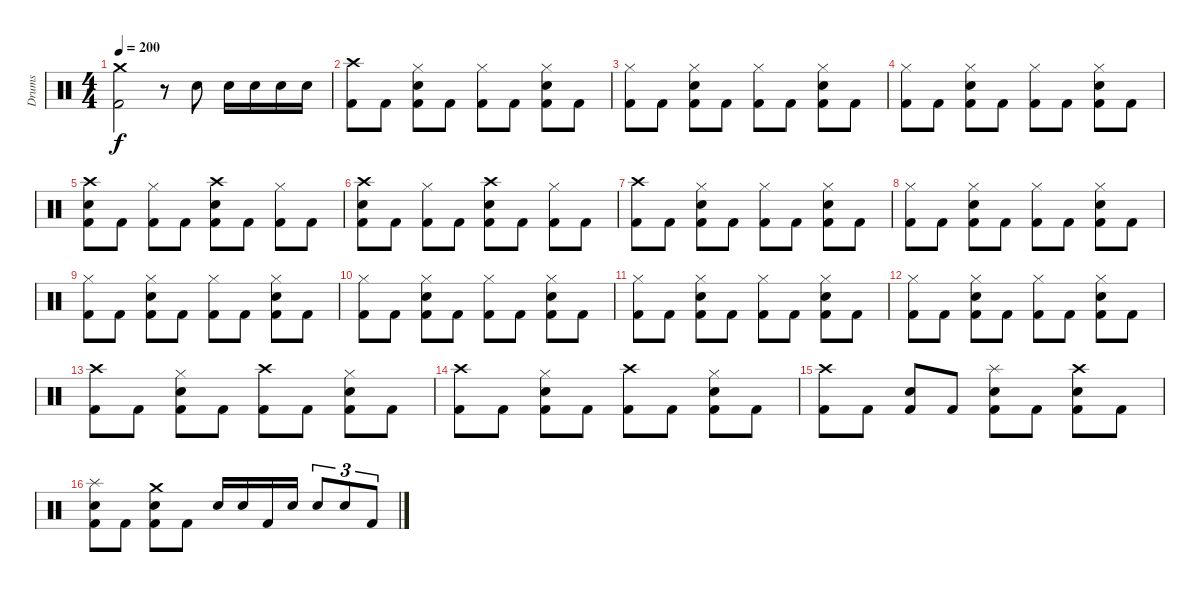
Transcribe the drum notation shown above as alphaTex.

\track ("Drums" "Drums") {instrument percussion}
\staff {score}
\articulation defaults
\ts (4 4)
\tempo 200
\clef neutral
\ks c
("Crash medium (hit)" "Kick (hit) 2").2{dy f} r.8 "Snare (hit) 2".8 "Snare (hit) 2".16 "Snare (hit) 2".16 "Snare (hit) 2".16 "Snare (hit) 2".16 |
("Crash high (hit)" "Kick (hit) 2").8 "Kick (hit) 2".8 ("Hi-Hat (closed)" "Snare (hit) 2" "Kick (hit) 2").8 "Kick (hit) 2".8 ("Hi-Hat (closed)" "Kick (hit) 2").8 "Kick (hit) 2".8 ("Hi-Hat (closed)" "Snare (hit) 2" "Kick (hit) 2").8 "Kick (hit) 2".8 |
("Hi-Hat (closed)" "Kick (hit) 2").8 "Kick (hit) 2".8 ("Hi-Hat (closed)" "Snare (hit) 2" "Kick (hit) 2").8 "Kick (hit) 2".8 ("Hi-Hat (closed)" "Kick (hit) 2").8 "Kick (hit) 2".8 ("Hi-Hat (closed)" "Snare (hit) 2" "Kick (hit) 2").8 "Kick (hit) 2".8 |
("Hi-Hat (closed)" "Kick (hit) 2").8 "Kick (hit) 2".8 ("Hi-Hat (closed)" "Snare (hit) 2" "Kick (hit) 2").8 "Kick (hit) 2".8 ("Hi-Hat (closed)" "Kick (hit) 2").8 "Kick (hit) 2".8 ("Hi-Hat (closed)" "Snare (hit) 2" "Kick (hit) 2").8 "Kick (hit) 2".8 |
("Crash high (hit)" "Snare (hit) 2" "Kick (hit) 2").8 "Kick (hit) 2".8 ("Hi-Hat (closed)" "Kick (hit) 2").8 "Kick (hit) 2".8 ("Crash high (hit)" "Snare (hit) 2" "Kick (hit) 2").8 "Kick (hit) 2".8 ("Hi-Hat (closed)" "Kick (hit) 2").8 "Kick (hit) 2".8 |
("Crash high (hit)" "Snare (hit) 2" "Kick (hit) 2").8 "Kick (hit) 2".8 ("Hi-Hat (closed)" "Kick (hit) 2").8 "Kick (hit) 2".8 ("Crash high (hit)" "Snare (hit) 2" "Kick (hit) 2").8 "Kick (hit) 2".8 ("Hi-Hat (closed)" "Kick (hit) 2").8 "Kick (hit) 2".8 |
("Crash high (hit)" "Kick (hit) 2").8 "Kick (hit) 2".8 ("Hi-Hat (closed)" "Snare (hit) 2" "Kick (hit) 2").8 "Kick (hit) 2".8 ("Hi-Hat (closed)" "Kick (hit) 2").8 "Kick (hit) 2".8 ("Hi-Hat (closed)" "Snare (hit) 2" "Kick (hit) 2").8 "Kick (hit) 2".8 |
("Hi-Hat (closed)" "Kick (hit) 2").8 "Kick (hit) 2".8 ("Hi-Hat (closed)" "Snare (hit) 2" "Kick (hit) 2").8 "Kick (hit) 2".8 ("Hi-Hat (closed)" "Kick (hit) 2").8 "Kick (hit) 2".8 ("Hi-Hat (closed)" "Snare (hit) 2" "Kick (hit) 2").8 "Kick (hit) 2".8 |
("Hi-Hat (closed)" "Kick (hit) 2").8 "Kick (hit) 2".8 ("Hi-Hat (closed)" "Snare (hit) 2" "Kick (hit) 2").8 "Kick (hit) 2".8 ("Hi-Hat (closed)" "Kick (hit) 2").8 "Kick (hit) 2".8 ("Hi-Hat (closed)" "Snare (hit) 2" "Kick (hit) 2").8 "Kick (hit) 2".8 |
("Hi-Hat (closed)" "Kick (hit) 2").8 "Kick (hit) 2".8 ("Hi-Hat (closed)" "Snare (hit) 2" "Kick (hit) 2").8 "Kick (hit) 2".8 ("Hi-Hat (closed)" "Kick (hit) 2").8 "Kick (hit) 2".8 ("Hi-Hat (closed)" "Snare (hit) 2" "Kick (hit) 2").8 "Kick (hit) 2".8 |
("Hi-Hat (closed)" "Kick (hit) 2").8 "Kick (hit) 2".8 ("Hi-Hat (closed)" "Snare (hit) 2" "Kick (hit) 2").8 "Kick (hit) 2".8 ("Hi-Hat (closed)" "Kick (hit) 2").8 "Kick (hit) 2".8 ("Hi-Hat (closed)" "Snare (hit) 2" "Kick (hit) 2").8 "Kick (hit) 2".8 |
("Hi-Hat (closed)" "Kick (hit) 2").8 "Kick (hit) 2".8 ("Hi-Hat (closed)" "Snare (hit) 2" "Kick (hit) 2").8 "Kick (hit) 2".8 ("Hi-Hat (closed)" "Kick (hit) 2").8 "Kick (hit) 2".8 ("Hi-Hat (closed)" "Snare (hit) 2" "Kick (hit) 2").8 "Kick (hit) 2".8 |
("Crash high (hit)" "Kick (hit) 2").8 "Kick (hit) 2".8 ("Hi-Hat (closed)" "Snare (hit) 2" "Kick (hit) 2").8 "Kick (hit) 2".8 ("Crash high (hit)" "Kick (hit) 2").8 "Kick (hit) 2".8 ("Hi-Hat (closed)" "Snare (hit) 2" "Kick (hit) 2").8 "Kick (hit) 2".8 |
("Crash high (hit)" "Kick (hit) 2").8 "Kick (hit) 2".8 ("Hi-Hat (closed)" "Snare (hit) 2" "Kick (hit) 2").8 "Kick (hit) 2".8 ("Crash high (hit)" "Kick (hit) 2").8 "Kick (hit) 2".8 ("Hi-Hat (closed)" "Snare (hit) 2" "Kick (hit) 2").8 "Kick (hit) 2".8 |
("Crash high (hit)" "Kick (hit) 2").8 "Kick (hit) 2".8 ("Snare (hit) 2" "Kick (hit) 2").8 "Kick (hit) 2".8 ("Splash (hit)" "Snare (hit) 2" "Kick (hit) 2").8 "Kick (hit) 2".8 ("Crash high (hit)" "Snare (hit) 2" "Kick (hit) 2").8 "Kick (hit) 2".8 |
("Splash (hit)" "Snare (hit) 2" "Kick (hit) 2").8 "Kick (hit) 2".8 ("Crash medium (hit)" "Snare (hit) 2" "Kick (hit) 2").8 "Kick (hit) 2".8 "Snare (hit) 2".16 "Snare (hit) 2".16 "Kick (hit) 2".16 "Snare (hit) 2".16 "Snare (hit) 2".8{tu (3 2)} "Snare (hit) 2".8{tu (3 2)} "Kick (hit) 2".8{tu (3 2)}
